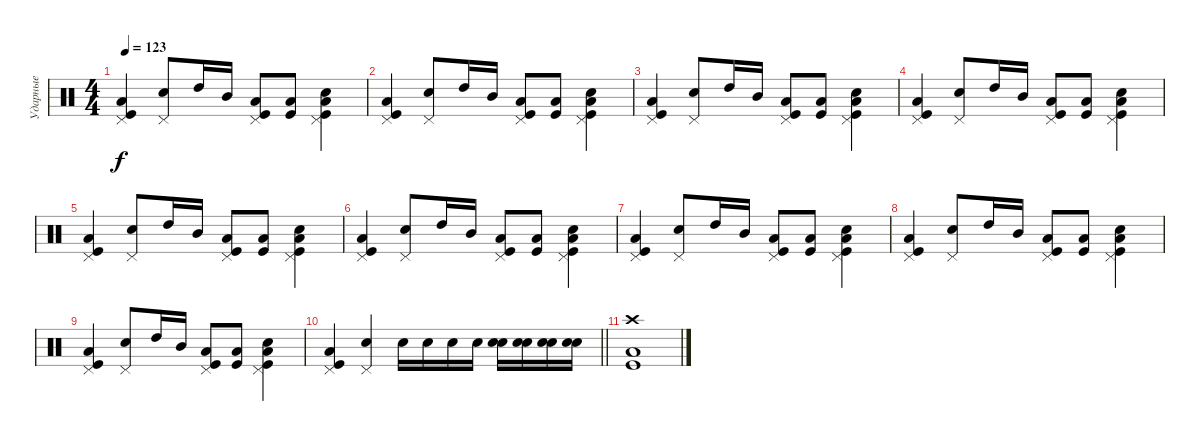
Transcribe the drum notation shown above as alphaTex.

\track ("Ударные" "Ударные") {instrument percussion}
\staff {score}
\articulation defaults
\ts (4 4)
\tempo 123
\clef neutral
\ks c
("Low Tom (hit)" "Kick (hit)" "Pedal Hi-Hat (hit)").4{dy f} ("Snare (hit) 2" "Pedal Hi-Hat (hit)").8 "High Tom (hit)".16 "Mid Tom (hit)".16 ("Low Tom (hit)" "Kick (hit)" "Pedal Hi-Hat (hit)").8 ("Low Tom (hit)" "Kick (hit)").8 ("Snare (hit) 2" "Low Tom (hit)" "Kick (hit)" "Pedal Hi-Hat (hit)").4 |
("Low Tom (hit)" "Kick (hit)" "Pedal Hi-Hat (hit)").4 ("Snare (hit) 2" "Pedal Hi-Hat (hit)").8 "High Tom (hit)".16 "Mid Tom (hit)".16 ("Low Tom (hit)" "Kick (hit)" "Pedal Hi-Hat (hit)").8 ("Low Tom (hit)" "Kick (hit)").8 ("Snare (hit) 2" "Low Tom (hit)" "Kick (hit)" "Pedal Hi-Hat (hit)").4 |
("Low Tom (hit)" "Kick (hit)" "Pedal Hi-Hat (hit)").4 ("Snare (hit) 2" "Pedal Hi-Hat (hit)").8 "High Tom (hit)".16 "Mid Tom (hit)".16 ("Low Tom (hit)" "Kick (hit)" "Pedal Hi-Hat (hit)").8 ("Low Tom (hit)" "Kick (hit)").8 ("Snare (hit) 2" "Low Tom (hit)" "Kick (hit)" "Pedal Hi-Hat (hit)").4 |
("Low Tom (hit)" "Kick (hit)" "Pedal Hi-Hat (hit)").4 ("Snare (hit) 2" "Pedal Hi-Hat (hit)").8 "High Tom (hit)".16 "Mid Tom (hit)".16 ("Low Tom (hit)" "Kick (hit)" "Pedal Hi-Hat (hit)").8 ("Low Tom (hit)" "Kick (hit)").8 ("Snare (hit) 2" "Low Tom (hit)" "Kick (hit)" "Pedal Hi-Hat (hit)").4 |
("Low Tom (hit)" "Kick (hit)" "Pedal Hi-Hat (hit)").4 ("Snare (hit) 2" "Pedal Hi-Hat (hit)").8 "High Tom (hit)".16 "Mid Tom (hit)".16 ("Low Tom (hit)" "Kick (hit)" "Pedal Hi-Hat (hit)").8 ("Low Tom (hit)" "Kick (hit)").8 ("Snare (hit) 2" "Low Tom (hit)" "Kick (hit)" "Pedal Hi-Hat (hit)").4 |
("Low Tom (hit)" "Kick (hit)" "Pedal Hi-Hat (hit)").4 ("Snare (hit) 2" "Pedal Hi-Hat (hit)").8 "High Tom (hit)".16 "Mid Tom (hit)".16 ("Low Tom (hit)" "Kick (hit)" "Pedal Hi-Hat (hit)").8 ("Low Tom (hit)" "Kick (hit)").8 ("Snare (hit) 2" "Low Tom (hit)" "Kick (hit)" "Pedal Hi-Hat (hit)").4 |
("Low Tom (hit)" "Kick (hit)" "Pedal Hi-Hat (hit)").4 ("Snare (hit) 2" "Pedal Hi-Hat (hit)").8 "High Tom (hit)".16 "Mid Tom (hit)".16 ("Low Tom (hit)" "Kick (hit)" "Pedal Hi-Hat (hit)").8 ("Low Tom (hit)" "Kick (hit)").8 ("Snare (hit) 2" "Low Tom (hit)" "Kick (hit)" "Pedal Hi-Hat (hit)").4 |
("Low Tom (hit)" "Kick (hit)" "Pedal Hi-Hat (hit)").4 ("Snare (hit) 2" "Pedal Hi-Hat (hit)").8 "High Tom (hit)".16 "Mid Tom (hit)".16 ("Low Tom (hit)" "Kick (hit)" "Pedal Hi-Hat (hit)").8 ("Low Tom (hit)" "Kick (hit)").8 ("Snare (hit) 2" "Low Tom (hit)" "Kick (hit)" "Pedal Hi-Hat (hit)").4 |
("Low Tom (hit)" "Kick (hit)" "Pedal Hi-Hat (hit)").4 ("Snare (hit) 2" "Pedal Hi-Hat (hit)").8 "High Tom (hit)".16 "Mid Tom (hit)".16 ("Low Tom (hit)" "Kick (hit)" "Pedal Hi-Hat (hit)").8 ("Low Tom (hit)" "Kick (hit)").8 ("Snare (hit) 2" "Low Tom (hit)" "Kick (hit)" "Pedal Hi-Hat (hit)").4 |
\barLineRight lightlight
("Low Tom (hit)" "Kick (hit)" "Pedal Hi-Hat (hit)").4 ("Snare (hit) 2" "Pedal Hi-Hat (hit)").4 "Electric Snare (hit)".16 "Electric Snare (hit)".16 "Electric Snare (hit)".16 "Electric Snare (hit)".16 ("Electric Snare (hit)" "Electric Snare (hit)").16 ("Electric Snare (hit)" "Electric Snare (hit)").16 ("Electric Snare (hit)" "Electric Snare (hit)").16 ("Electric Snare (hit)" "Electric Snare (hit)").16 |
("Crash high (hit)" "Low Tom (hit)" "Kick (hit)").1
